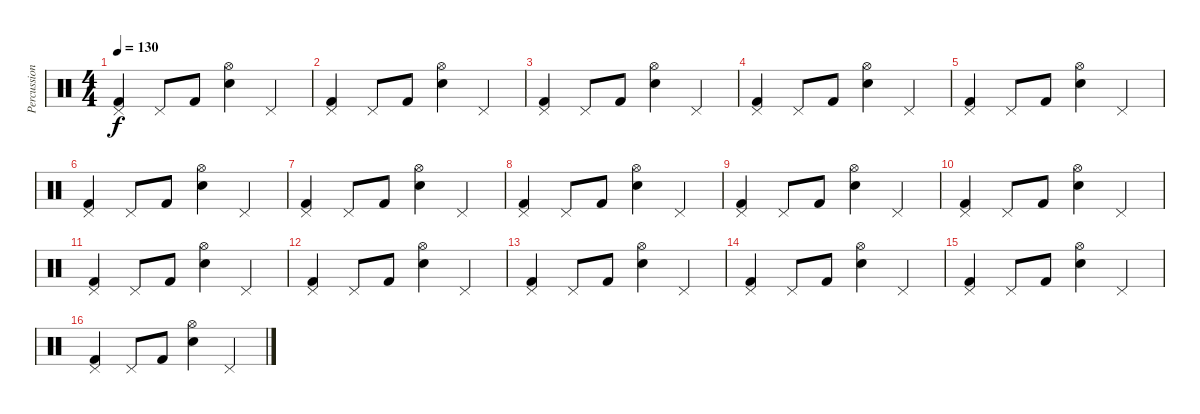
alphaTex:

\track ("Percussion" "Percussion") {instrument percussion}
\staff {score}
\articulation defaults
\ts (4 4)
\tempo 130
\clef neutral
\ks c
("Pedal Hi-Hat (hit)" "Kick (hit) 2").4{dy f} "Pedal Hi-Hat (hit)".8 "Kick (hit) 2".8 ("Hi-Hat (open)" "Electric Snare (hit)").4 "Pedal Hi-Hat (hit)".4 |
("Pedal Hi-Hat (hit)" "Kick (hit) 2").4 "Pedal Hi-Hat (hit)".8 "Kick (hit) 2".8 ("Hi-Hat (open)" "Electric Snare (hit)").4 "Pedal Hi-Hat (hit)".4 |
("Pedal Hi-Hat (hit)" "Kick (hit) 2").4 "Pedal Hi-Hat (hit)".8 "Kick (hit) 2".8 ("Hi-Hat (open)" "Electric Snare (hit)").4 "Pedal Hi-Hat (hit)".4 |
("Pedal Hi-Hat (hit)" "Kick (hit) 2").4 "Pedal Hi-Hat (hit)".8 "Kick (hit) 2".8 ("Hi-Hat (open)" "Electric Snare (hit)").4 "Pedal Hi-Hat (hit)".4 |
("Pedal Hi-Hat (hit)" "Kick (hit) 2").4 "Pedal Hi-Hat (hit)".8 "Kick (hit) 2".8 ("Hi-Hat (open)" "Electric Snare (hit)").4 "Pedal Hi-Hat (hit)".4 |
("Pedal Hi-Hat (hit)" "Kick (hit) 2").4 "Pedal Hi-Hat (hit)".8 "Kick (hit) 2".8 ("Hi-Hat (open)" "Electric Snare (hit)").4 "Pedal Hi-Hat (hit)".4 |
("Pedal Hi-Hat (hit)" "Kick (hit) 2").4 "Pedal Hi-Hat (hit)".8 "Kick (hit) 2".8 ("Hi-Hat (open)" "Electric Snare (hit)").4 "Pedal Hi-Hat (hit)".4 |
("Pedal Hi-Hat (hit)" "Kick (hit) 2").4 "Pedal Hi-Hat (hit)".8 "Kick (hit) 2".8 ("Hi-Hat (open)" "Electric Snare (hit)").4 "Pedal Hi-Hat (hit)".4 |
("Pedal Hi-Hat (hit)" "Kick (hit) 2").4 "Pedal Hi-Hat (hit)".8 "Kick (hit) 2".8 ("Hi-Hat (open)" "Electric Snare (hit)").4 "Pedal Hi-Hat (hit)".4 |
("Pedal Hi-Hat (hit)" "Kick (hit) 2").4 "Pedal Hi-Hat (hit)".8 "Kick (hit) 2".8 ("Hi-Hat (open)" "Electric Snare (hit)").4 "Pedal Hi-Hat (hit)".4 |
("Pedal Hi-Hat (hit)" "Kick (hit) 2").4 "Pedal Hi-Hat (hit)".8 "Kick (hit) 2".8 ("Hi-Hat (open)" "Electric Snare (hit)").4 "Pedal Hi-Hat (hit)".4 |
("Pedal Hi-Hat (hit)" "Kick (hit) 2").4 "Pedal Hi-Hat (hit)".8 "Kick (hit) 2".8 ("Hi-Hat (open)" "Electric Snare (hit)").4 "Pedal Hi-Hat (hit)".4 |
("Pedal Hi-Hat (hit)" "Kick (hit) 2").4 "Pedal Hi-Hat (hit)".8 "Kick (hit) 2".8 ("Hi-Hat (open)" "Electric Snare (hit)").4 "Pedal Hi-Hat (hit)".4 |
("Pedal Hi-Hat (hit)" "Kick (hit) 2").4 "Pedal Hi-Hat (hit)".8 "Kick (hit) 2".8 ("Hi-Hat (open)" "Electric Snare (hit)").4 "Pedal Hi-Hat (hit)".4 |
("Pedal Hi-Hat (hit)" "Kick (hit) 2").4 "Pedal Hi-Hat (hit)".8 "Kick (hit) 2".8 ("Hi-Hat (open)" "Electric Snare (hit)").4 "Pedal Hi-Hat (hit)".4 |
("Pedal Hi-Hat (hit)" "Kick (hit) 2").4 "Pedal Hi-Hat (hit)".8 "Kick (hit) 2".8 ("Hi-Hat (open)" "Electric Snare (hit)").4 "Pedal Hi-Hat (hit)".4
